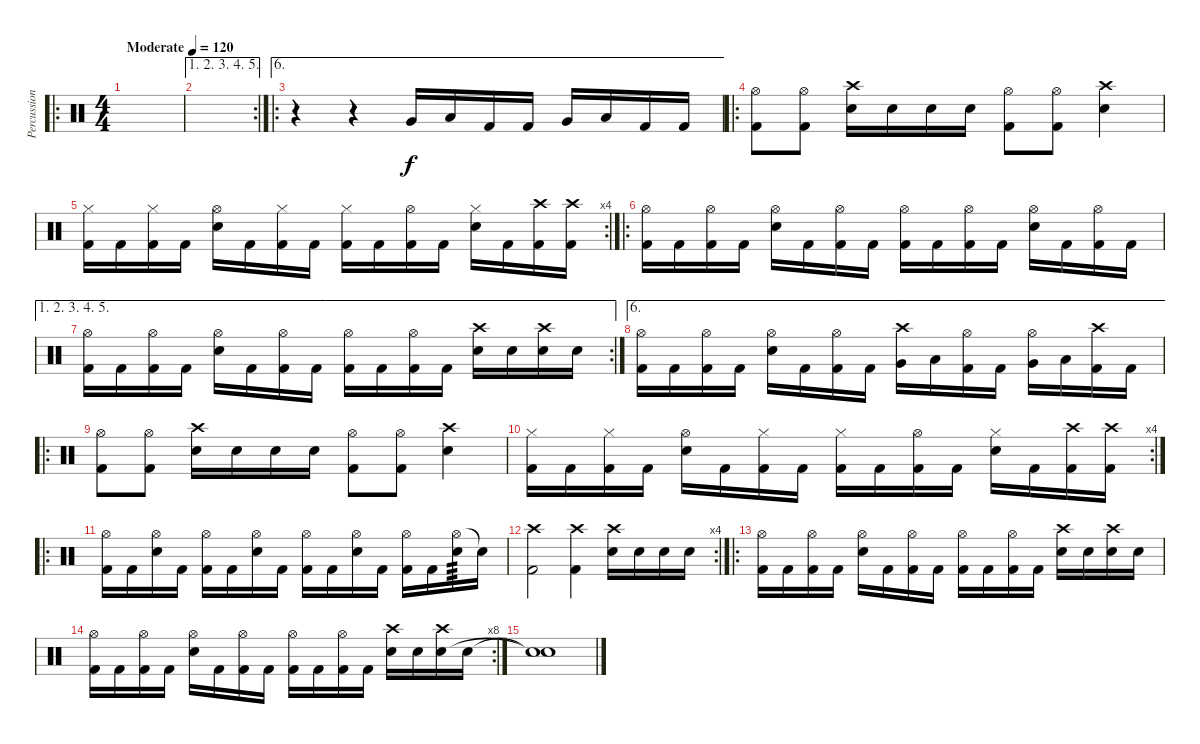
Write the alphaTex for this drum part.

\track ("Percussion" "Percussion") {instrument percussion}
\staff {score}
\articulation defaults
\ro
\ts (4 4)
\tempo (120 "Moderate")
\clef neutral
\ks c
|
\ae (1 2 3 4 5)
\rc 2
|
\ae 6
\ro
r.4 r.4 "Very Low Tom (hit)".16 "Low Floor Tom (hit)".16 "Kick (hit) 2".16 "Kick (hit) 2".16 "Very Low Tom (hit)".16 "Low Floor Tom (hit)".16 "Kick (hit) 2".16 "Kick (hit) 2".16 |
\ro
("Hi-Hat (open)" "Kick (hit) 2").8 ("Hi-Hat (open)" "Kick (hit) 2").8 ("Crash high (hit)" "Snare (hit) 2").16 "Snare (hit) 2".16 "Snare (hit) 2".16 "Snare (hit) 2".16 ("Hi-Hat (open)" "Kick (hit) 2").8 ("Hi-Hat (open)" "Kick (hit) 2").8 ("Crash high (hit)" "Snare (hit) 2").4 |
\rc 4
("Hi-Hat (closed)" "Kick (hit) 2").16 "Kick (hit) 2".16 ("Hi-Hat (closed)" "Kick (hit) 2").16 "Kick (hit) 2".16 ("Hi-Hat (open)" "Snare (hit) 2").16 "Kick (hit) 2".16 ("Hi-Hat (closed)" "Kick (hit) 2").16 "Kick (hit) 2".16 ("Hi-Hat (closed)" "Kick (hit) 2").16 "Kick (hit) 2".16 ("Hi-Hat (open)" "Kick (hit) 2").16 "Kick (hit) 2".16 ("Hi-Hat (closed)" "Snare (hit) 2").16 "Kick (hit) 2".16 ("Crash high (hit)" "Kick (hit) 2").16 ("Crash high (hit)" "Kick (hit) 2").16 |
\ro
("Hi-Hat (open)" "Kick (hit) 2").16 "Kick (hit) 2".16 ("Hi-Hat (open)" "Kick (hit) 2").16 "Kick (hit) 2".16 ("Hi-Hat (open)" "Snare (hit) 2").16 "Kick (hit) 2".16 ("Hi-Hat (open)" "Kick (hit) 2").16 "Kick (hit) 2".16 ("Hi-Hat (open)" "Kick (hit) 2").16 "Kick (hit) 2".16 ("Hi-Hat (open)" "Kick (hit) 2").16 "Kick (hit) 2".16 ("Hi-Hat (open)" "Snare (hit) 2").16 "Kick (hit) 2".16 ("Hi-Hat (open)" "Kick (hit) 2").16 "Kick (hit) 2".16 |
\ae (1 2 3 4 5)
\rc 2
("Hi-Hat (open)" "Kick (hit) 2").16 "Kick (hit) 2".16 ("Hi-Hat (open)" "Kick (hit) 2").16 "Kick (hit) 2".16 ("Hi-Hat (open)" "Snare (hit) 2").16 "Kick (hit) 2".16 ("Hi-Hat (open)" "Kick (hit) 2").16 "Kick (hit) 2".16 ("Hi-Hat (open)" "Kick (hit) 2").16 "Kick (hit) 2".16 ("Hi-Hat (open)" "Kick (hit) 2").16 "Kick (hit) 2".16 ("Crash high (hit)" "Snare (hit) 2").16 "Snare (hit) 2".16 ("Crash high (hit)" "Snare (hit) 2").16 "Snare (hit) 2".16 |
\ae 6
("Hi-Hat (open)" "Kick (hit) 2").16 "Kick (hit) 2".16 ("Hi-Hat (open)" "Kick (hit) 2").16 "Kick (hit) 2".16 ("Hi-Hat (open)" "Snare (hit) 2").16 "Kick (hit) 2".16 ("Hi-Hat (open)" "Kick (hit) 2").16 "Kick (hit) 2".16 ("Crash high (hit)" "Very Low Tom (hit)").16 "Low Floor Tom (hit)".16 ("Hi-Hat (open)" "Kick (hit) 2").16 "Kick (hit) 2".16 ("Hi-Hat (open)" "Very Low Tom (hit)").16 "Low Floor Tom (hit)".16 ("Crash high (hit)" "Kick (hit) 2").16 "Kick (hit) 2".16 |
\ro
("Hi-Hat (open)" "Kick (hit) 2").8 ("Hi-Hat (open)" "Kick (hit) 2").8 ("Crash high (hit)" "Snare (hit) 2").16 "Snare (hit) 2".16 "Snare (hit) 2".16 "Snare (hit) 2".16 ("Hi-Hat (open)" "Kick (hit) 2").8 ("Hi-Hat (open)" "Kick (hit) 2").8 ("Crash high (hit)" "Snare (hit) 2").4 |
\rc 4
("Hi-Hat (closed)" "Kick (hit) 2").16 "Kick (hit) 2".16 ("Hi-Hat (closed)" "Kick (hit) 2").16 "Kick (hit) 2".16 ("Hi-Hat (open)" "Snare (hit) 2").16 "Kick (hit) 2".16 ("Hi-Hat (closed)" "Kick (hit) 2").16 "Kick (hit) 2".16 ("Hi-Hat (closed)" "Kick (hit) 2").16 "Kick (hit) 2".16 ("Hi-Hat (open)" "Kick (hit) 2").16 "Kick (hit) 2".16 ("Hi-Hat (closed)" "Snare (hit) 2").16 "Kick (hit) 2".16 ("Crash high (hit)" "Kick (hit) 2").16 ("Crash high (hit)" "Kick (hit) 2").16 |
\ro
("Hi-Hat (open)" "Kick (hit) 2").16 "Kick (hit) 2".16 ("Hi-Hat (open)" "Snare (hit) 2").16 "Kick (hit) 2".16 ("Hi-Hat (open)" "Kick (hit) 2").16 "Kick (hit) 2".16 ("Hi-Hat (open)" "Snare (hit) 2").16 "Kick (hit) 2".16 ("Hi-Hat (open)" "Kick (hit) 2").16 "Kick (hit) 2".16 ("Hi-Hat (open)" "Snare (hit) 2").16 "Kick (hit) 2".16 ("Hi-Hat (open)" "Kick (hit) 2").16 "Kick (hit) 2".16 ("Hi-Hat (open)" "Snare (hit) 2").16{tp 3} "Snare (hit)"{t}.16 |
\rc 4
("Crash high (hit)" "Kick (hit) 2").2 ("Crash high (hit)" "Kick (hit) 2").4 ("Crash high (hit)" "Snare (hit) 2").16 "Snare (hit) 2".16 "Snare (hit) 2".16 "Snare (hit) 2".16 |
\ro
("Hi-Hat (open)" "Kick (hit) 2").16 "Kick (hit) 2".16 ("Hi-Hat (open)" "Kick (hit) 2").16 "Kick (hit) 2".16 ("Hi-Hat (open)" "Snare (hit) 2").16 "Kick (hit) 2".16 ("Hi-Hat (open)" "Kick (hit) 2").16 "Kick (hit) 2".16 ("Hi-Hat (open)" "Kick (hit) 2").16 "Kick (hit) 2".16 ("Hi-Hat (open)" "Kick (hit) 2").16 "Kick (hit) 2".16 ("Crash high (hit)" "Snare (hit) 2").16 "Snare (hit) 2".16 ("Crash high (hit)" "Snare (hit) 2").16 "Snare (hit) 2".16 |
\rc 8
("Hi-Hat (open)" "Kick (hit) 2").16 "Kick (hit) 2".16 ("Hi-Hat (open)" "Kick (hit) 2").16 "Kick (hit) 2".16 ("Hi-Hat (open)" "Snare (hit) 2").16 "Kick (hit) 2".16 ("Hi-Hat (open)" "Kick (hit) 2").16 "Kick (hit) 2".16 ("Hi-Hat (open)" "Kick (hit) 2").16 "Kick (hit) 2".16 ("Hi-Hat (open)" "Kick (hit) 2").16 "Kick (hit) 2".16 ("Crash high (hit)" "Snare (hit) 2").16 "Snare (hit) 2".16 ("Crash high (hit)" "Snare (hit) 2").16 "Snare (hit) 2".16 |
("Snare (hit)"{t} "Snare (hit)"{t}).1
